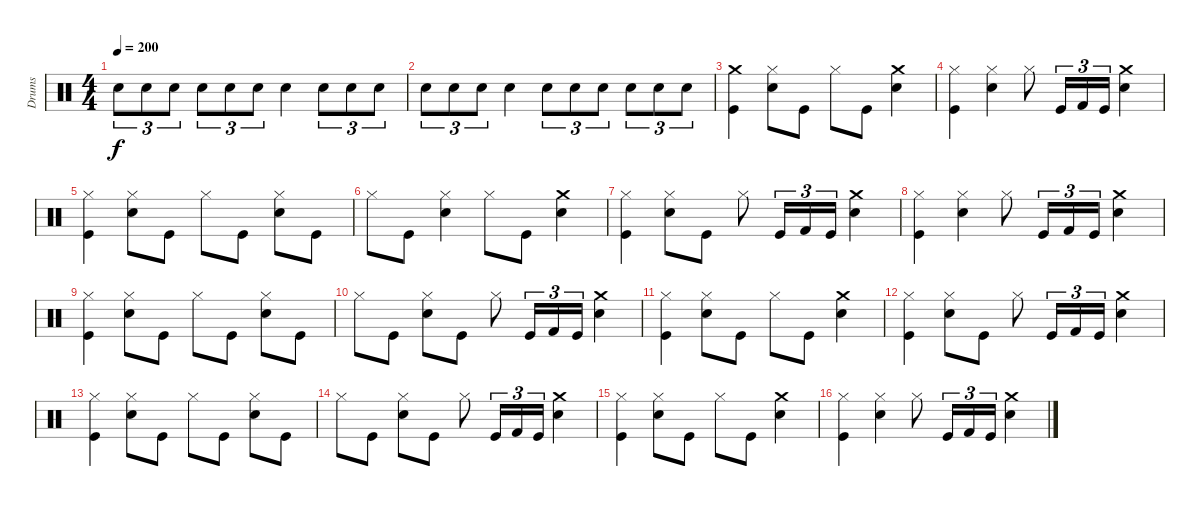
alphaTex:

\track ("Drums" "Drums") {instrument percussion}
\staff {score}
\articulation defaults
\ts (4 4)
\tempo 200
\clef neutral
\ks c "Snare (hit) 2".8{tu (3 2) dy f} "Snare (hit) 2".8{tu (3 2)} "Snare (hit) 2".8{tu (3 2)} "Snare (hit) 2".8{tu (3 2)} "Snare (hit) 2".8{tu (3 2)} "Snare (hit) 2".8{tu (3 2)} "Snare (hit) 2".4 "Snare (hit) 2".8{tu (3 2)} "Snare (hit) 2".8{tu (3 2)} "Snare (hit) 2".8{tu (3 2)}
|
"Snare (hit) 2".8{tu (3 2)} "Snare (hit) 2".8{tu (3 2)} "Snare (hit) 2".8{tu (3 2)} "Snare (hit) 2".4 "Snare (hit) 2".8{tu (3 2)} "Snare (hit) 2".8{tu (3 2)} "Snare (hit) 2".8{tu (3 2)} "Snare (hit) 2".8{tu (3 2)} "Snare (hit) 2".8{tu (3 2)} "Snare (hit) 2".8{tu (3 2)} |
("Kick (hit)" "Crash medium (hit)").4 ("Hi-Hat (closed)" "Snare (hit) 2").8 "Kick (hit)".8 "Hi-Hat (closed)".8 "Kick (hit)".8 ("Crash medium (hit)" "Snare (hit) 2").4 |
("Hi-Hat (closed)" "Kick (hit)").4 ("Snare (hit) 2" "Hi-Hat (closed)").4 "Hi-Hat (closed)".8 "Kick (hit)".16{tu (3 2)} "Kick (hit) 2".16{tu (3 2)} "Kick (hit)".16{tu (3 2)} ("Crash medium (hit)" "Snare (hit) 2").4 |
("Hi-Hat (closed)" "Kick (hit)").4 ("Snare (hit) 2" "Hi-Hat (closed)").8 "Kick (hit)".8 "Hi-Hat (closed)".8 "Kick (hit)".8 ("Snare (hit) 2" "Hi-Hat (closed)").8 "Kick (hit)".8 |
"Hi-Hat (closed)".8 "Kick (hit)".8 ("Snare (hit) 2" "Hi-Hat (closed)").4 "Hi-Hat (closed)".8 "Kick (hit)".8 ("Crash medium (hit)" "Snare (hit) 2").4 |
("Kick (hit)" "Hi-Hat (closed)").4 ("Snare (hit) 2" "Hi-Hat (closed)").8 "Kick (hit)".8 "Hi-Hat (closed)".8 "Kick (hit)".16{tu (3 2)} "Kick (hit) 2".16{tu (3 2)} "Kick (hit)".16{tu (3 2)} ("Crash medium (hit)" "Snare (hit) 2").4 |
("Hi-Hat (closed)" "Kick (hit)").4 ("Snare (hit) 2" "Hi-Hat (closed)").4 "Hi-Hat (closed)".8 "Kick (hit)".16{tu (3 2)} "Kick (hit) 2".16{tu (3 2)} "Kick (hit)".16{tu (3 2)} ("Crash medium (hit)" "Snare (hit) 2").4 |
("Hi-Hat (closed)" "Kick (hit)").4 ("Snare (hit) 2" "Hi-Hat (closed)").8 "Kick (hit)".8 "Hi-Hat (closed)".8 "Kick (hit)".8 ("Snare (hit) 2" "Hi-Hat (closed)").8 "Kick (hit)".8 |
"Hi-Hat (closed)".8 "Kick (hit)".8 ("Snare (hit) 2" "Hi-Hat (closed)").8 "Kick (hit)".8 "Hi-Hat (closed)".8 "Kick (hit)".16{tu (3 2)} "Kick (hit) 2".16{tu (3 2)} "Kick (hit)".16{tu (3 2)} ("Crash medium (hit)" "Snare (hit) 2").4 |
("Hi-Hat (closed)" "Kick (hit)").4 ("Snare (hit) 2" "Hi-Hat (closed)").8 "Kick (hit)".8 "Hi-Hat (closed)".8 "Kick (hit)".8 ("Crash medium (hit)" "Snare (hit) 2").4 |
("Kick (hit)" "Hi-Hat (closed)").4 ("Snare (hit) 2" "Hi-Hat (closed)").8 "Kick (hit)".8 "Hi-Hat (closed)".8 "Kick (hit)".16{tu (3 2)} "Kick (hit) 2".16{tu (3 2)} "Kick (hit)".16{tu (3 2)} ("Crash medium (hit)" "Snare (hit) 2").4 |
("Hi-Hat (closed)" "Kick (hit)").4 ("Snare (hit) 2" "Hi-Hat (closed)").8 "Kick (hit)".8 "Hi-Hat (closed)".8 "Kick (hit)".8 ("Snare (hit) 2" "Hi-Hat (closed)").8 "Kick (hit)".8 |
"Hi-Hat (closed)".8 "Kick (hit)".8 ("Snare (hit) 2" "Hi-Hat (closed)").8 "Kick (hit)".8 "Hi-Hat (closed)".8 "Kick (hit)".16{tu (3 2)} "Kick (hit) 2".16{tu (3 2)} "Kick (hit)".16{tu (3 2)} ("Crash medium (hit)" "Snare (hit) 2").4 |
("Hi-Hat (closed)" "Kick (hit)").4 ("Snare (hit) 2" "Hi-Hat (closed)").8 "Kick (hit)".8 "Hi-Hat (closed)".8 "Kick (hit)".8 ("Crash medium (hit)" "Snare (hit) 2").4 |
("Hi-Hat (closed)" "Kick (hit)").4 ("Snare (hit) 2" "Hi-Hat (closed)").4 "Hi-Hat (closed)".8 "Kick (hit)".16{tu (3 2)} "Kick (hit) 2".16{tu (3 2)} "Kick (hit)".16{tu (3 2)} ("Crash medium (hit)" "Snare (hit) 2").4
